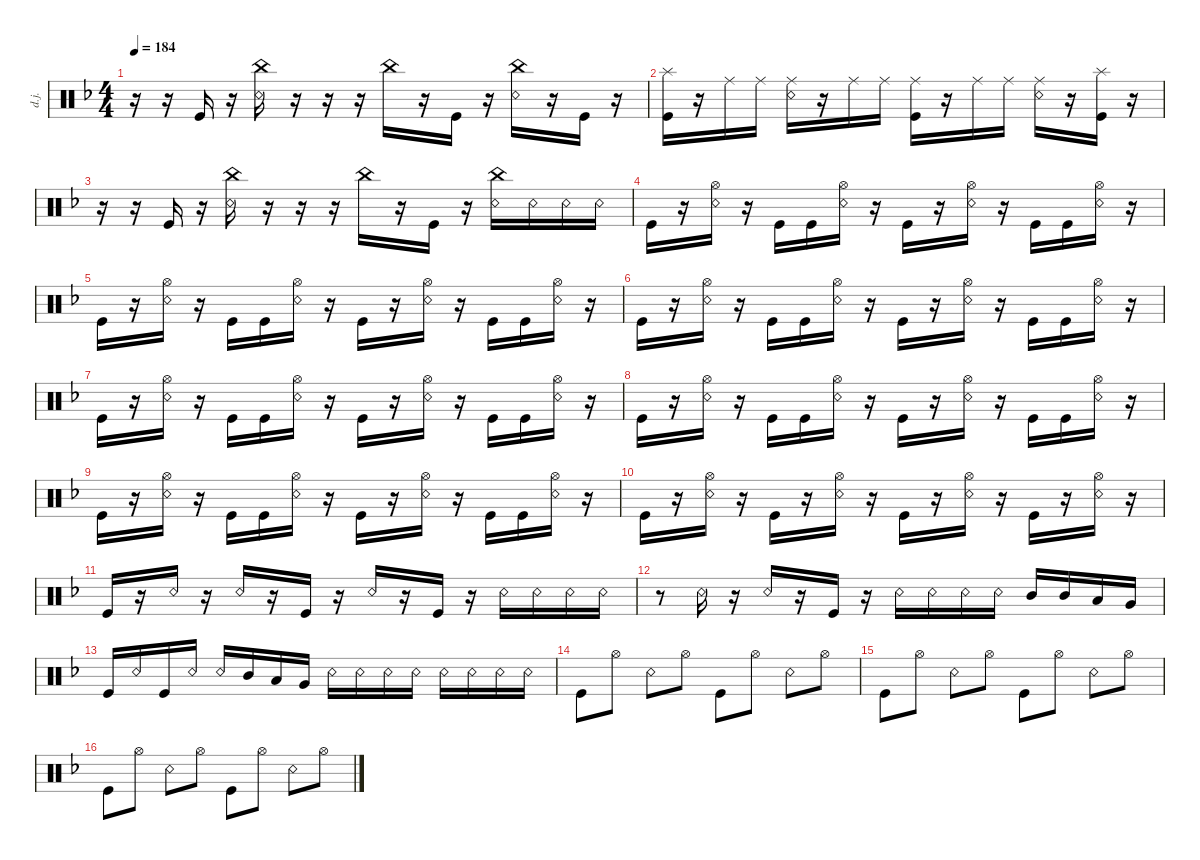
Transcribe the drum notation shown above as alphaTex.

\defaultSystemsLayout 4
\hideDynamics
\bracketExtendMode nobrackets
\otherSystemsTrackNameOrientation horizontal
\track ("Drumkit Jason" "d.j.") {instrument percussion}
\staff {score}
\articulation defaults
\ts (4 4)
\tempo 184
\clef neutral
\ks dminor
r.16{dy ff} r.16 "Kick (hit)".16 r.16 ("China (hit)" "Snare (rim shot)").16 r.16 r.16 r.16 "China (hit)".16 r.16 "Kick (hit)".16 r.16 ("China (hit)" "Snare (rim shot)").16 r.16 "Kick (hit)".16 r.16 |
("Splash (hit)" "Kick (hit)").16 r.16 "Ride (middle)".16 "Ride (middle)".16 ("Ride (middle)" "Snare (rim shot)").16 r.16 "Ride (middle)".16 "Ride (middle)".16 ("Ride (middle)" "Kick (hit)").16 r.16 "Ride (middle)".16 "Ride (middle)".16 ("Ride (middle)" "Snare (rim shot)").16 r.16 ("Splash (hit)" "Kick (hit)").16 r.16 |
r.16 r.16 "Kick (hit)".16 r.16 ("China (hit)" "Snare (rim shot)").16 r.16 r.16 r.16 "China (hit)".16 r.16 "Kick (hit)".16 r.16 ("Snare (rim shot)" "China (hit)").16 "Snare (rim shot)".16 "Snare (rim shot)".16 "Snare (rim shot)".16 |
"Kick (hit)".16 r.16 ("Snare (rim shot)" "Hi-Hat (open)").16 r.16 "Kick (hit)".16 "Kick (hit)".16 ("Snare (rim shot)" "Hi-Hat (open)").16 r.16 "Kick (hit)".16 r.16 ("Snare (rim shot)" "Hi-Hat (open)").16 r.16 "Kick (hit)".16 "Kick (hit)".16 ("Snare (rim shot)" "Hi-Hat (open)").16 r.16 |
"Kick (hit)".16 r.16 ("Snare (rim shot)" "Hi-Hat (open)").16 r.16 "Kick (hit)".16 "Kick (hit)".16 ("Snare (rim shot)" "Hi-Hat (open)").16 r.16 "Kick (hit)".16 r.16 ("Snare (rim shot)" "Hi-Hat (open)").16 r.16 "Kick (hit)".16 "Kick (hit)".16 ("Snare (rim shot)" "Hi-Hat (open)").16 r.16 |
"Kick (hit)".16 r.16 ("Snare (rim shot)" "Hi-Hat (open)").16 r.16 "Kick (hit)".16 "Kick (hit)".16 ("Snare (rim shot)" "Hi-Hat (open)").16 r.16 "Kick (hit)".16 r.16 ("Snare (rim shot)" "Hi-Hat (open)").16 r.16 "Kick (hit)".16 "Kick (hit)".16 ("Snare (rim shot)" "Hi-Hat (open)").16 r.16 |
"Kick (hit)".16 r.16 ("Snare (rim shot)" "Hi-Hat (open)").16 r.16 "Kick (hit)".16 "Kick (hit)".16 ("Snare (rim shot)" "Hi-Hat (open)").16 r.16 "Kick (hit)".16 r.16 ("Snare (rim shot)" "Hi-Hat (open)").16 r.16 "Kick (hit)".16 "Kick (hit)".16 ("Snare (rim shot)" "Hi-Hat (open)").16 r.16 |
"Kick (hit)".16 r.16 ("Snare (rim shot)" "Hi-Hat (open)").16 r.16 "Kick (hit)".16 "Kick (hit)".16 ("Snare (rim shot)" "Hi-Hat (open)").16 r.16 "Kick (hit)".16 r.16 ("Snare (rim shot)" "Hi-Hat (open)").16 r.16 "Kick (hit)".16 "Kick (hit)".16 ("Snare (rim shot)" "Hi-Hat (open)").16 r.16 |
"Kick (hit)".16 r.16 ("Snare (rim shot)" "Hi-Hat (open)").16 r.16 "Kick (hit)".16 "Kick (hit)".16 ("Snare (rim shot)" "Hi-Hat (open)").16 r.16 "Kick (hit)".16 r.16 ("Snare (rim shot)" "Hi-Hat (open)").16 r.16 "Kick (hit)".16 "Kick (hit)".16 ("Snare (rim shot)" "Hi-Hat (open)").16 r.16 |
"Kick (hit)".16 r.16 ("Snare (rim shot)" "Hi-Hat (open)").16 r.16 "Kick (hit)".16 r.16 ("Snare (rim shot)" "Hi-Hat (open)").16 r.16 "Kick (hit)".16 r.16 ("Snare (rim shot)" "Hi-Hat (open)").16 r.16 "Kick (hit)".16 r.16 ("Snare (rim shot)" "Hi-Hat (open)").16 r.16 |
"Kick (hit)".16 r.16 "Snare (rim shot)".16 r.16 "Snare (rim shot)".16 r.16 "Kick (hit)".16 r.16 "Snare (rim shot)".16 r.16 "Kick (hit)".16 r.16 "Snare (rim shot)".16 "Snare (rim shot)".16 "Snare (rim shot)".16 "Snare (rim shot)".16 |
r.8 "Snare (rim shot)".16{dy mf} r.16 "Snare (rim shot)".16 r.16 "Kick (hit)".16 r.16 "Snare (rim shot)".16 "Snare (rim shot)".16 "Snare (rim shot)".16 "Snare (rim shot)".16 "Mid Tom (hit)".16 "Mid Tom (hit)".16 "Low Tom (hit)".16 "Very Low Tom (hit)".16 |
"Kick (hit)".16 "Snare (rim shot)".16 "Kick (hit)".16 "Snare (rim shot)".16 "Snare (rim shot)".16 "Mid Tom (hit)".16 "Low Tom (hit)".16 "Very Low Tom (hit)".16 "Snare (rim shot)".16 "Snare (rim shot)".16 "Snare (rim shot)".16 "Snare (rim shot)".16 "Snare (rim shot)".16 "Snare (rim shot)".16 "Snare (rim shot)".16 "Snare (rim shot)".16 |
"Kick (hit)".8{dy ff} "Hi-Hat (open)".8 "Snare (rim shot)".8 "Hi-Hat (open)".8 "Kick (hit)".8 "Hi-Hat (open)".8 "Snare (rim shot)".8 "Hi-Hat (open)".8 |
"Kick (hit)".8 "Hi-Hat (open)".8 "Snare (rim shot)".8 "Hi-Hat (open)".8 "Kick (hit)".8 "Hi-Hat (open)".8 "Snare (rim shot)".8 "Hi-Hat (open)".8 |
"Kick (hit)".8 "Hi-Hat (open)".8 "Snare (rim shot)".8 "Hi-Hat (open)".8 "Kick (hit)".8 "Hi-Hat (open)".8 "Snare (rim shot)".8 "Hi-Hat (open)".8
